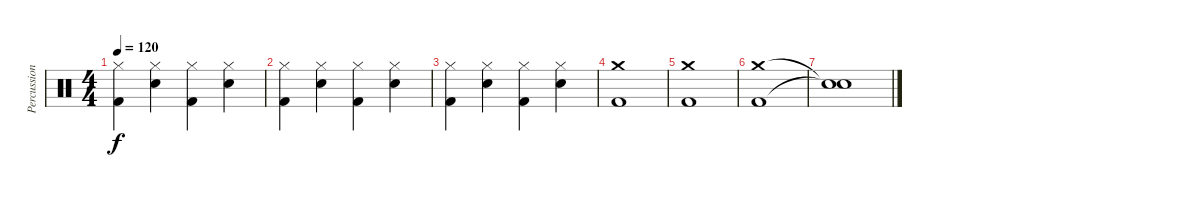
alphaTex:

\track ("Percussion" "Percussion") {instrument percussion}
\staff {score}
\articulation defaults
\ts (4 4)
\tempo 120
\clef neutral
\ks c
("Hi-Hat (closed)" "Kick (hit) 2").4{dy f} ("Electric Snare (hit)" "Hi-Hat (closed)").4 ("Hi-Hat (closed)" "Kick (hit) 2").4 ("Electric Snare (hit)" "Hi-Hat (closed)").4 |
("Hi-Hat (closed)" "Kick (hit) 2").4 ("Electric Snare (hit)" "Hi-Hat (closed)").4 ("Hi-Hat (closed)" "Kick (hit) 2").4 ("Electric Snare (hit)" "Hi-Hat (closed)").4 |
("Hi-Hat (closed)" "Kick (hit) 2").4 ("Electric Snare (hit)" "Hi-Hat (closed)").4 ("Hi-Hat (closed)" "Kick (hit) 2").4 ("Electric Snare (hit)" "Hi-Hat (closed)").4 |
("Kick (hit) 2" "Crash medium (hit)").1 |
("Kick (hit) 2" "Crash medium (hit)").1 |
("Kick (hit) 2" "Crash medium (hit)").1 |
("Snare (hit)"{t} "Snare (hit)"{t}).1
